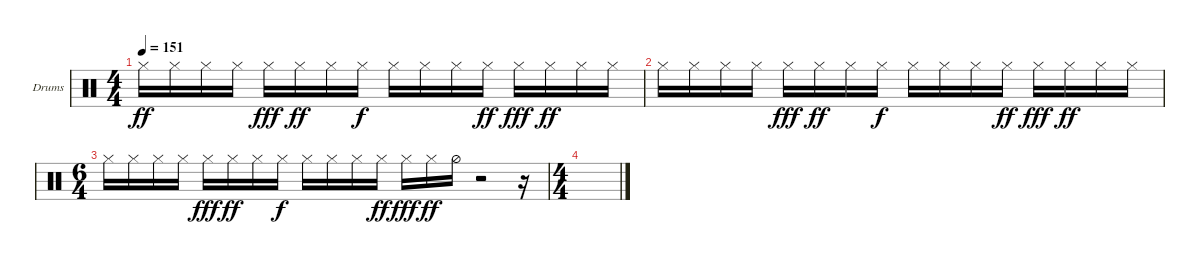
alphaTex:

\defaultSystemsLayout 4
\bracketExtendMode groupsimilarinstruments
\firstSystemTrackNameOrientation horizontal
\otherSystemsTrackNameOrientation horizontal
\track ("Helders" "Drums") {instrument percussion}
\staff {score}
\articulation defaults
\ts (4 4)
\tempo 151
\clef neutral
\ks c "Hi-Hat (closed)".16{dy ff} "Hi-Hat (closed)".16 "Hi-Hat (closed)".16 "Hi-Hat (closed)".16 "Hi-Hat (closed)".16{dy fff} "Hi-Hat (closed)".16{dy ff} "Hi-Hat (closed)".16 "Hi-Hat (closed)".16{dy f} "Hi-Hat (closed)".16 "Hi-Hat (closed)".16 "Hi-Hat (closed)".16 "Hi-Hat (closed)".16{dy ff} "Hi-Hat (closed)".16{dy fff} "Hi-Hat (closed)".16{dy ff} "Hi-Hat (closed)".16 "Hi-Hat (closed)".16
|
"Hi-Hat (closed)".16 "Hi-Hat (closed)".16 "Hi-Hat (closed)".16 "Hi-Hat (closed)".16 "Hi-Hat (closed)".16{dy fff} "Hi-Hat (closed)".16{dy ff} "Hi-Hat (closed)".16 "Hi-Hat (closed)".16{dy f} "Hi-Hat (closed)".16 "Hi-Hat (closed)".16 "Hi-Hat (closed)".16 "Hi-Hat (closed)".16{dy ff} "Hi-Hat (closed)".16{dy fff} "Hi-Hat (closed)".16{dy ff} "Hi-Hat (closed)".16 "Hi-Hat (closed)".16 |
\ts (6 4)
"Hi-Hat (closed)".16 "Hi-Hat (closed)".16 "Hi-Hat (closed)".16 "Hi-Hat (closed)".16 "Hi-Hat (closed)".16{dy fff} "Hi-Hat (closed)".16{dy ff} "Hi-Hat (closed)".16 "Hi-Hat (closed)".16{dy f} "Hi-Hat (closed)".16 "Hi-Hat (closed)".16 "Hi-Hat (closed)".16 "Hi-Hat (closed)".16{dy ff} "Hi-Hat (closed)".16{dy fff} "Hi-Hat (closed)".16{dy ff} "Hi-Hat (half)".16 r.2 r.16 |
\ts (4 4)
